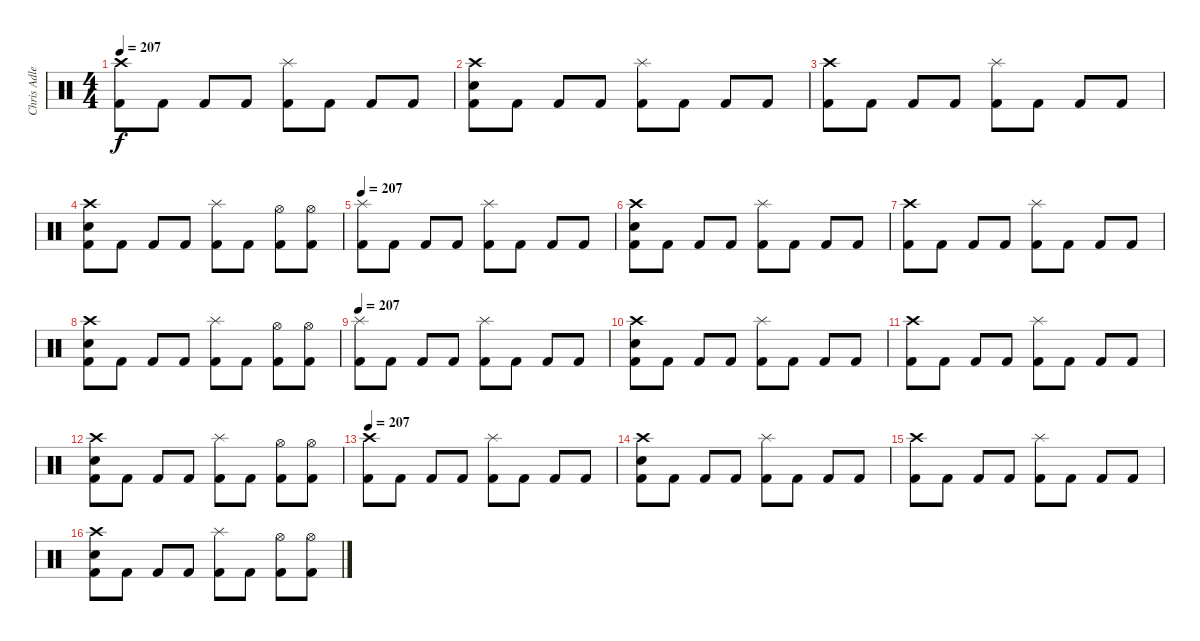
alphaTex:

\track ("Chris Adler" "Chris Adle") {instrument percussion}
\staff {score}
\articulation defaults
\ts (4 4)
\tempo 207
\clef neutral
\ks c
("Crash high (hit)" "Kick (hit) 2").8{dy f} "Kick (hit) 2".8 "Kick (hit) 2".8 "Kick (hit) 2".8 ("Splash (hit)" "Kick (hit) 2").8 "Kick (hit) 2".8 "Kick (hit) 2".8 "Kick (hit) 2".8 |
("Crash high (hit)" "Electric Snare (hit)" "Kick (hit) 2").8 "Kick (hit) 2".8 "Kick (hit) 2".8 "Kick (hit) 2".8 ("Splash (hit)" "Kick (hit) 2").8 "Kick (hit) 2".8 "Kick (hit) 2".8 "Kick (hit) 2".8 |
("Crash high (hit)" "Kick (hit) 2").8 "Kick (hit) 2".8 "Kick (hit) 2".8 "Kick (hit) 2".8 ("Splash (hit)" "Kick (hit) 2").8 "Kick (hit) 2".8 "Kick (hit) 2".8 "Kick (hit) 2".8 |
("Crash high (hit)" "Electric Snare (hit)" "Kick (hit) 2").8 "Kick (hit) 2".8 "Kick (hit) 2".8 "Kick (hit) 2".8 ("Splash (hit)" "Kick (hit) 2").8 "Kick (hit) 2".8 ("Hi-Hat (open)" "Kick (hit) 2").8 ("Hi-Hat (open)" "Kick (hit) 2").8 |
\tempo 207
("Splash (hit)" "Kick (hit) 2").8 "Kick (hit) 2".8 "Kick (hit) 2".8 "Kick (hit) 2".8 ("Splash (hit)" "Kick (hit) 2").8 "Kick (hit) 2".8 "Kick (hit) 2".8 "Kick (hit) 2".8 |
("Crash high (hit)" "Electric Snare (hit)" "Kick (hit) 2").8 "Kick (hit) 2".8 "Kick (hit) 2".8 "Kick (hit) 2".8 ("Splash (hit)" "Kick (hit) 2").8 "Kick (hit) 2".8 "Kick (hit) 2".8 "Kick (hit) 2".8 |
("Crash high (hit)" "Kick (hit) 2").8 "Kick (hit) 2".8 "Kick (hit) 2".8 "Kick (hit) 2".8 ("Splash (hit)" "Kick (hit) 2").8 "Kick (hit) 2".8 "Kick (hit) 2".8 "Kick (hit) 2".8 |
("Crash high (hit)" "Electric Snare (hit)" "Kick (hit) 2").8 "Kick (hit) 2".8 "Kick (hit) 2".8 "Kick (hit) 2".8 ("Splash (hit)" "Kick (hit) 2").8 "Kick (hit) 2".8 ("Hi-Hat (open)" "Kick (hit) 2").8 ("Hi-Hat (open)" "Kick (hit) 2").8 |
\tempo 207
("Splash (hit)" "Kick (hit) 2").8 "Kick (hit) 2".8 "Kick (hit) 2".8 "Kick (hit) 2".8 ("Splash (hit)" "Kick (hit) 2").8 "Kick (hit) 2".8 "Kick (hit) 2".8 "Kick (hit) 2".8 |
("Crash high (hit)" "Electric Snare (hit)" "Kick (hit) 2").8 "Kick (hit) 2".8 "Kick (hit) 2".8 "Kick (hit) 2".8 ("Splash (hit)" "Kick (hit) 2").8 "Kick (hit) 2".8 "Kick (hit) 2".8 "Kick (hit) 2".8 |
("Crash high (hit)" "Kick (hit) 2").8 "Kick (hit) 2".8 "Kick (hit) 2".8 "Kick (hit) 2".8 ("Splash (hit)" "Kick (hit) 2").8 "Kick (hit) 2".8 "Kick (hit) 2".8 "Kick (hit) 2".8 |
("Crash high (hit)" "Electric Snare (hit)" "Kick (hit) 2").8 "Kick (hit) 2".8 "Kick (hit) 2".8 "Kick (hit) 2".8 ("Splash (hit)" "Kick (hit) 2").8 "Kick (hit) 2".8 ("Hi-Hat (open)" "Kick (hit) 2").8 ("Hi-Hat (open)" "Kick (hit) 2").8 |
\tempo 207
("Crash high (hit)" "Kick (hit) 2").8 "Kick (hit) 2".8 "Kick (hit) 2".8 "Kick (hit) 2".8 ("Splash (hit)" "Kick (hit) 2").8 "Kick (hit) 2".8 "Kick (hit) 2".8 "Kick (hit) 2".8 |
("Crash high (hit)" "Electric Snare (hit)" "Kick (hit) 2").8 "Kick (hit) 2".8 "Kick (hit) 2".8 "Kick (hit) 2".8 ("Splash (hit)" "Kick (hit) 2").8 "Kick (hit) 2".8 "Kick (hit) 2".8 "Kick (hit) 2".8 |
("Crash high (hit)" "Kick (hit) 2").8 "Kick (hit) 2".8 "Kick (hit) 2".8 "Kick (hit) 2".8 ("Splash (hit)" "Kick (hit) 2").8 "Kick (hit) 2".8 "Kick (hit) 2".8 "Kick (hit) 2".8 |
("Crash high (hit)" "Electric Snare (hit)" "Kick (hit) 2").8 "Kick (hit) 2".8 "Kick (hit) 2".8 "Kick (hit) 2".8 ("Splash (hit)" "Kick (hit) 2").8 "Kick (hit) 2".8 ("Hi-Hat (open)" "Kick (hit) 2").8 ("Hi-Hat (open)" "Kick (hit) 2").8
